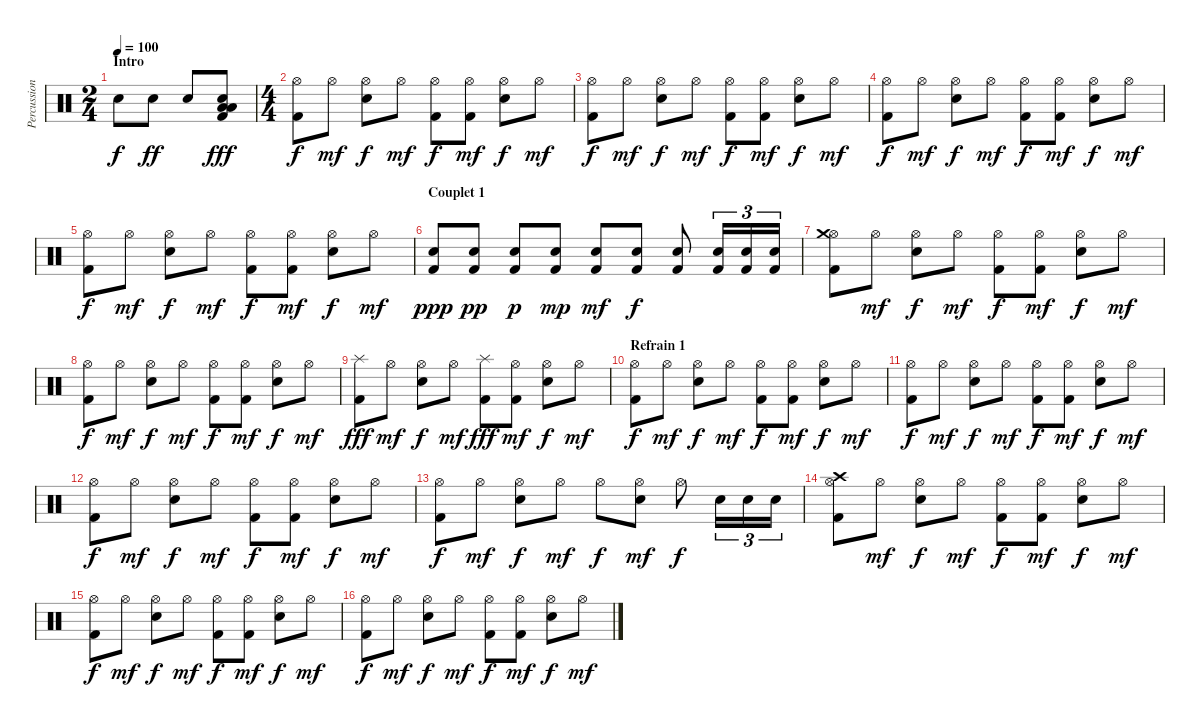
\track ("Percussions" "Percussion") {instrument percussion}
\staff {score}
\articulation defaults
\ts (2 4)
\section ("" "Intro")
\tempo 100
\clef neutral
\ks c "Electric Snare (hit)".8{dy f} "Electric Snare (hit)".8{dy ff} "Electric Snare (hit)".8
("Electric Snare (hit)" "Low Floor Tom (hit)" "Low Floor Tom (hit)" "Kick (hit) 2").8{dy fff} |
\ts (4 4)
("Hi-Hat (open)" "Kick (hit) 2").8{dy f} "Hi-Hat (open)".8{dy mf} ("Hi-Hat (open)" "Electric Snare (hit)").8{dy f} "Hi-Hat (open)".8{dy mf} ("Hi-Hat (open)" "Kick (hit) 2").8{dy f} ("Hi-Hat (open)" "Kick (hit) 2").8{dy mf} ("Hi-Hat (open)" "Electric Snare (hit)").8{dy f} "Hi-Hat (open)".8{dy mf} |
("Hi-Hat (open)" "Kick (hit) 2").8{dy f} "Hi-Hat (open)".8{dy mf} ("Hi-Hat (open)" "Electric Snare (hit)").8{dy f} "Hi-Hat (open)".8{dy mf} ("Hi-Hat (open)" "Kick (hit) 2").8{dy f} ("Hi-Hat (open)" "Kick (hit) 2").8{dy mf} ("Hi-Hat (open)" "Electric Snare (hit)").8{dy f} "Hi-Hat (open)".8{dy mf} |
("Hi-Hat (open)" "Kick (hit) 2").8{dy f} "Hi-Hat (open)".8{dy mf} ("Hi-Hat (open)" "Electric Snare (hit)").8{dy f} "Hi-Hat (open)".8{dy mf} ("Hi-Hat (open)" "Kick (hit) 2").8{dy f} ("Hi-Hat (open)" "Kick (hit) 2").8{dy mf} ("Hi-Hat (open)" "Electric Snare (hit)").8{dy f} "Hi-Hat (open)".8{dy mf} |
("Hi-Hat (open)" "Kick (hit) 2").8{dy f} "Hi-Hat (open)".8{dy mf} ("Hi-Hat (open)" "Electric Snare (hit)").8{dy f} "Hi-Hat (open)".8{dy mf} ("Hi-Hat (open)" "Kick (hit) 2").8{dy f} ("Hi-Hat (open)" "Kick (hit) 2").8{dy mf} ("Hi-Hat (open)" "Electric Snare (hit)").8{dy f} "Hi-Hat (open)".8{dy mf} |
\section ("" "Couplet 1")
("Electric Snare (hit)" "Kick (hit) 2").8{dy ppp} ("Electric Snare (hit)" "Kick (hit) 2").8{dy pp} ("Electric Snare (hit)" "Kick (hit) 2").8{dy p} ("Electric Snare (hit)" "Kick (hit) 2").8{dy mp} ("Electric Snare (hit)" "Kick (hit) 2").8{dy mf} ("Electric Snare (hit)" "Kick (hit) 2").8{dy f} ("Electric Snare (hit)" "Kick (hit) 2").8 ("Electric Snare (hit)" "Kick (hit) 2").16{tu (3 2)} ("Electric Snare (hit)" "Kick (hit) 2").16{tu (3 2)} ("Electric Snare (hit)" "Kick (hit) 2").16{tu (3 2)} |
("Hi-Hat (open)" "Crash medium (hit)" "Kick (hit) 2").8 "Hi-Hat (open)".8{dy mf} ("Hi-Hat (open)" "Electric Snare (hit)").8{dy f} "Hi-Hat (open)".8{dy mf} ("Hi-Hat (open)" "Kick (hit) 2").8{dy f} ("Hi-Hat (open)" "Kick (hit) 2").8{dy mf} ("Hi-Hat (open)" "Electric Snare (hit)").8{dy f} "Hi-Hat (open)".8{dy mf} |
("Hi-Hat (open)" "Kick (hit) 2").8{dy f} "Hi-Hat (open)".8{dy mf} ("Hi-Hat (open)" "Electric Snare (hit)").8{dy f} "Hi-Hat (open)".8{dy mf} ("Hi-Hat (open)" "Kick (hit) 2").8{dy f} ("Hi-Hat (open)" "Kick (hit) 2").8{dy mf} ("Hi-Hat (open)" "Electric Snare (hit)").8{dy f} "Hi-Hat (open)".8{dy mf} |
("Splash (hit)" "Kick (hit) 2").8{dy fff} "Hi-Hat (open)".8{dy mf} ("Hi-Hat (open)" "Electric Snare (hit)").8{dy f} "Hi-Hat (open)".8{dy mf} ("Splash (hit)" "Kick (hit) 2").8{dy fff} ("Hi-Hat (open)" "Kick (hit) 2").8{dy mf} ("Hi-Hat (open)" "Electric Snare (hit)").8{dy f} "Hi-Hat (open)".8{dy mf} |
\section ("" "Refrain 1")
("Hi-Hat (open)" "Kick (hit) 2").8{dy f} "Hi-Hat (open)".8{dy mf} ("Hi-Hat (open)" "Electric Snare (hit)").8{dy f} "Hi-Hat (open)".8{dy mf} ("Hi-Hat (open)" "Kick (hit) 2").8{dy f} ("Hi-Hat (open)" "Kick (hit) 2").8{dy mf} ("Hi-Hat (open)" "Electric Snare (hit)").8{dy f} "Hi-Hat (open)".8{dy mf} |
("Hi-Hat (open)" "Kick (hit) 2").8{dy f} "Hi-Hat (open)".8{dy mf} ("Hi-Hat (open)" "Electric Snare (hit)").8{dy f} "Hi-Hat (open)".8{dy mf} ("Hi-Hat (open)" "Kick (hit) 2").8{dy f} ("Hi-Hat (open)" "Kick (hit) 2").8{dy mf} ("Hi-Hat (open)" "Electric Snare (hit)").8{dy f} "Hi-Hat (open)".8{dy mf} |
("Hi-Hat (open)" "Kick (hit) 2").8{dy f} "Hi-Hat (open)".8{dy mf} ("Hi-Hat (open)" "Electric Snare (hit)").8{dy f} "Hi-Hat (open)".8{dy mf} ("Hi-Hat (open)" "Kick (hit) 2").8{dy f} ("Hi-Hat (open)" "Kick (hit) 2").8{dy mf} ("Hi-Hat (open)" "Electric Snare (hit)").8{dy f} "Hi-Hat (open)".8{dy mf} |
("Hi-Hat (open)" "Kick (hit) 2").8{dy f} "Hi-Hat (open)".8{dy mf} ("Hi-Hat (open)" "Electric Snare (hit)").8{dy f} "Hi-Hat (open)".8{dy mf} "Hi-Hat (open)".8{dy f} ("Hi-Hat (open)" "Electric Snare (hit)").8{dy mf} "Hi-Hat (open)".8{dy f} "Electric Snare (hit)".16{tu (3 2)} "Electric Snare (hit)".16{tu (3 2)} "Electric Snare (hit)".16{tu (3 2)} |
("Hi-Hat (open)" "Crash high (hit)" "Kick (hit) 2").8 "Hi-Hat (open)".8{dy mf} ("Hi-Hat (open)" "Electric Snare (hit)").8{dy f} "Hi-Hat (open)".8{dy mf} ("Hi-Hat (open)" "Kick (hit) 2").8{dy f} ("Hi-Hat (open)" "Kick (hit) 2").8{dy mf} ("Hi-Hat (open)" "Electric Snare (hit)").8{dy f} "Hi-Hat (open)".8{dy mf} |
("Hi-Hat (open)" "Kick (hit) 2").8{dy f} "Hi-Hat (open)".8{dy mf} ("Hi-Hat (open)" "Electric Snare (hit)").8{dy f} "Hi-Hat (open)".8{dy mf} ("Hi-Hat (open)" "Kick (hit) 2").8{dy f} ("Hi-Hat (open)" "Kick (hit) 2").8{dy mf} ("Hi-Hat (open)" "Electric Snare (hit)").8{dy f} "Hi-Hat (open)".8{dy mf} |
("Hi-Hat (open)" "Kick (hit) 2").8{dy f} "Hi-Hat (open)".8{dy mf} ("Hi-Hat (open)" "Electric Snare (hit)").8{dy f} "Hi-Hat (open)".8{dy mf} ("Hi-Hat (open)" "Kick (hit) 2").8{dy f} ("Hi-Hat (open)" "Kick (hit) 2").8{dy mf} ("Hi-Hat (open)" "Electric Snare (hit)").8{dy f} "Hi-Hat (open)".8{dy mf}
